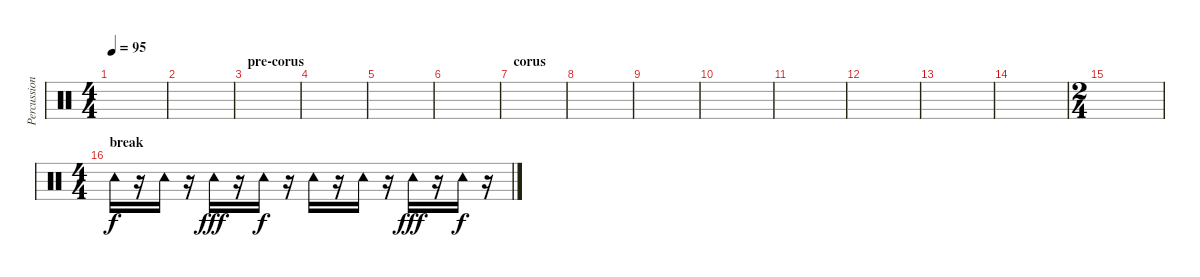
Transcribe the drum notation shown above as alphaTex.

\track ("Percussion" "Percussion") {instrument percussion}
\staff {score}
\articulation defaults
\ts (4 4)
\tempo 95
\clef neutral
\ks c
|
|
\section ("" "pre-corus")
|
|
|
|
\section ("" "corus")
|
|
|
|
|
|
|
|
\ts (2 4)
|
\ts (4 4)
\section ("" "break")
"Tambourine (hit)".16 r.16 "Tambourine (hit)".16 r.16 "Tambourine (hit)".16{dy fff} r.16 "Tambourine (hit)".16{dy f} r.16 "Tambourine (hit)".16 r.16 "Tambourine (hit)".16 r.16 "Tambourine (hit)".16{dy fff} r.16 "Tambourine (hit)".16{dy f} r.16
